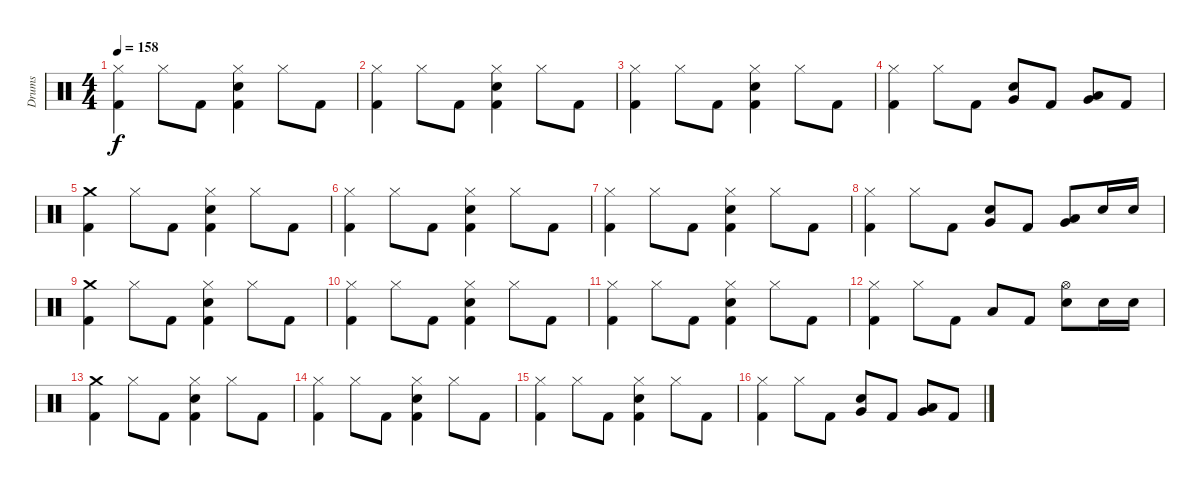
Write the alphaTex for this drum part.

\track ("Drums" "Drums") {instrument percussion}
\staff {score}
\articulation defaults
\ts (4 4)
\tempo 158
\clef neutral
\ks c
("Hi-Hat (closed)" "Kick (hit) 2").4{dy f} "Hi-Hat (closed)".8 "Kick (hit) 2".8 ("Hi-Hat (closed)" "Electric Snare (hit)" "Kick (hit) 2").4 "Hi-Hat (closed)".8 "Kick (hit) 2".8 |
("Hi-Hat (closed)" "Kick (hit) 2").4 "Hi-Hat (closed)".8 "Kick (hit) 2".8 ("Hi-Hat (closed)" "Electric Snare (hit)" "Kick (hit) 2").4 "Hi-Hat (closed)".8 "Kick (hit) 2".8 |
("Hi-Hat (closed)" "Kick (hit) 2").4 "Hi-Hat (closed)".8 "Kick (hit) 2".8 ("Hi-Hat (closed)" "Electric Snare (hit)" "Kick (hit) 2").4 "Hi-Hat (closed)".8 "Kick (hit) 2".8 |
("Hi-Hat (closed)" "Kick (hit) 2").4 "Hi-Hat (closed)".8 "Kick (hit) 2".8 ("Electric Snare (hit)" "Very Low Tom (hit)").8 "Kick (hit) 2".8 ("Very Low Tom (hit)" "Low Floor Tom (hit)").8 "Kick (hit) 2".8 |
("Crash medium (hit)" "Kick (hit) 2").4 "Hi-Hat (closed)".8 "Kick (hit) 2".8 ("Hi-Hat (closed)" "Electric Snare (hit)" "Kick (hit) 2").4 "Hi-Hat (closed)".8 "Kick (hit) 2".8 |
("Hi-Hat (closed)" "Kick (hit) 2").4 "Hi-Hat (closed)".8 "Kick (hit) 2".8 ("Hi-Hat (closed)" "Electric Snare (hit)" "Kick (hit) 2").4 "Hi-Hat (closed)".8 "Kick (hit) 2".8 |
("Hi-Hat (closed)" "Kick (hit) 2").4 "Hi-Hat (closed)".8 "Kick (hit) 2".8 ("Hi-Hat (closed)" "Electric Snare (hit)" "Kick (hit) 2").4 "Hi-Hat (closed)".8 "Kick (hit) 2".8 |
("Hi-Hat (closed)" "Kick (hit) 2").4 "Hi-Hat (closed)".8 "Kick (hit) 2".8 ("Electric Snare (hit)" "Very Low Tom (hit)").8 "Kick (hit) 2".8 ("Very Low Tom (hit)" "Low Floor Tom (hit)").8 "Electric Snare (hit)".16 "Electric Snare (hit)".16 |
("Crash medium (hit)" "Kick (hit) 2").4 "Hi-Hat (closed)".8 "Kick (hit) 2".8 ("Hi-Hat (closed)" "Electric Snare (hit)" "Kick (hit) 2").4 "Hi-Hat (closed)".8 "Kick (hit) 2".8 |
("Hi-Hat (closed)" "Kick (hit) 2").4 "Hi-Hat (closed)".8 "Kick (hit) 2".8 ("Hi-Hat (closed)" "Electric Snare (hit)" "Kick (hit) 2").4 "Hi-Hat (closed)".8 "Kick (hit) 2".8 |
("Hi-Hat (closed)" "Kick (hit) 2").4 "Hi-Hat (closed)".8 "Kick (hit) 2".8 ("Hi-Hat (closed)" "Electric Snare (hit)" "Kick (hit) 2").4 "Hi-Hat (closed)".8 "Kick (hit) 2".8 |
("Hi-Hat (closed)" "Kick (hit) 2").4 "Hi-Hat (closed)".8 "Kick (hit) 2".8 "Low Floor Tom (hit)".8 "Kick (hit) 2".8 ("Electric Snare (hit)" "Hi-Hat (open)").8 "Electric Snare (hit)".16 "Electric Snare (hit)".16 |
("Crash medium (hit)" "Kick (hit) 2").4 "Hi-Hat (closed)".8 "Kick (hit) 2".8 ("Hi-Hat (closed)" "Electric Snare (hit)" "Kick (hit) 2").4 "Hi-Hat (closed)".8 "Kick (hit) 2".8 |
("Hi-Hat (closed)" "Kick (hit) 2").4 "Hi-Hat (closed)".8 "Kick (hit) 2".8 ("Hi-Hat (closed)" "Electric Snare (hit)" "Kick (hit) 2").4 "Hi-Hat (closed)".8 "Kick (hit) 2".8 |
("Hi-Hat (closed)" "Kick (hit) 2").4 "Hi-Hat (closed)".8 "Kick (hit) 2".8 ("Hi-Hat (closed)" "Electric Snare (hit)" "Kick (hit) 2").4 "Hi-Hat (closed)".8 "Kick (hit) 2".8 |
("Hi-Hat (closed)" "Kick (hit) 2").4 "Hi-Hat (closed)".8 "Kick (hit) 2".8 ("Electric Snare (hit)" "Very Low Tom (hit)").8 "Kick (hit) 2".8 ("Very Low Tom (hit)" "Low Floor Tom (hit)").8 "Kick (hit) 2".8
